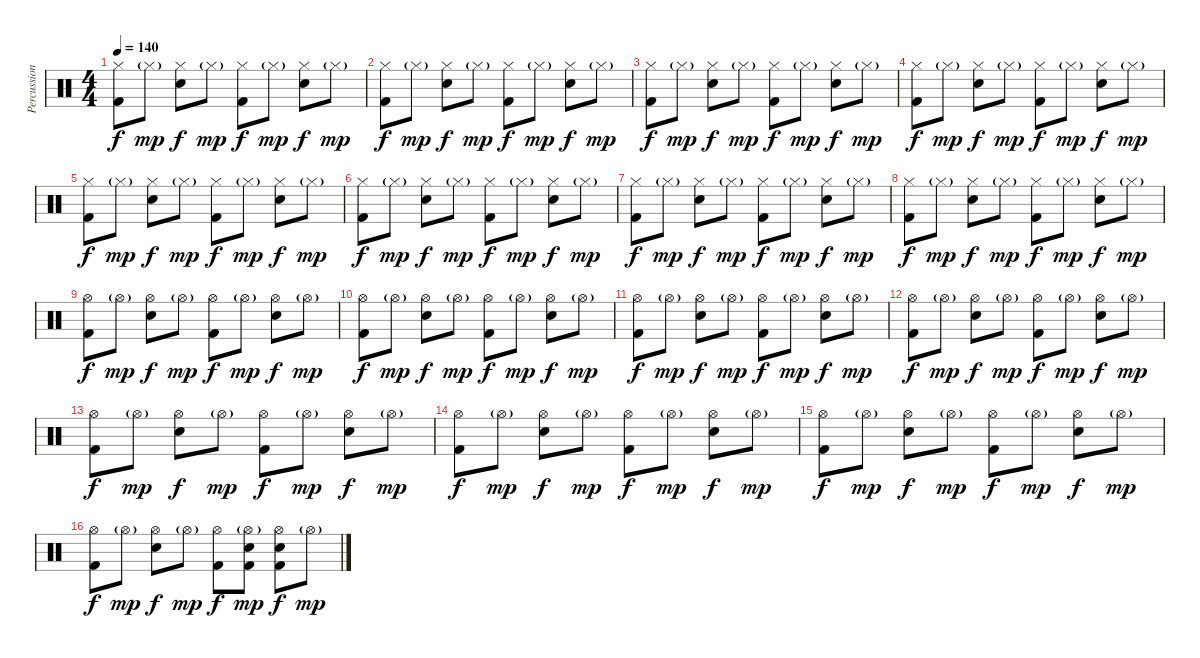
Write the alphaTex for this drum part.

\track ("Percussion" "Percussion") {instrument percussion}
\staff {score}
\articulation defaults
\ts (4 4)
\tempo 140
\clef neutral
\ks c
("Hi-Hat (closed)" "Kick (hit) 2").8{dy f} "Hi-Hat (closed)"{g}.8{dy mp} ("Hi-Hat (closed)" "Snare (hit) 2").8{dy f} "Hi-Hat (closed)"{g}.8{dy mp} ("Hi-Hat (closed)" "Kick (hit) 2").8{dy f} "Hi-Hat (closed)"{g}.8{dy mp} ("Hi-Hat (closed)" "Snare (hit) 2").8{dy f} "Hi-Hat (closed)"{g}.8{dy mp} |
("Hi-Hat (closed)" "Kick (hit) 2").8{dy f} "Hi-Hat (closed)"{g}.8{dy mp} ("Hi-Hat (closed)" "Snare (hit) 2").8{dy f} "Hi-Hat (closed)"{g}.8{dy mp} ("Hi-Hat (closed)" "Kick (hit) 2").8{dy f} "Hi-Hat (closed)"{g}.8{dy mp} ("Hi-Hat (closed)" "Snare (hit) 2").8{dy f} "Hi-Hat (closed)"{g}.8{dy mp} |
("Hi-Hat (closed)" "Kick (hit) 2").8{dy f} "Hi-Hat (closed)"{g}.8{dy mp} ("Hi-Hat (closed)" "Snare (hit) 2").8{dy f} "Hi-Hat (closed)"{g}.8{dy mp} ("Hi-Hat (closed)" "Kick (hit) 2").8{dy f} "Hi-Hat (closed)"{g}.8{dy mp} ("Hi-Hat (closed)" "Snare (hit) 2").8{dy f} "Hi-Hat (closed)"{g}.8{dy mp} |
("Hi-Hat (closed)" "Kick (hit) 2").8{dy f} "Hi-Hat (closed)"{g}.8{dy mp} ("Hi-Hat (closed)" "Snare (hit) 2").8{dy f} "Hi-Hat (closed)"{g}.8{dy mp} ("Hi-Hat (closed)" "Kick (hit) 2").8{dy f} "Hi-Hat (closed)"{g}.8{dy mp} ("Hi-Hat (closed)" "Snare (hit) 2").8{dy f} "Hi-Hat (closed)"{g}.8{dy mp} |
("Hi-Hat (closed)" "Kick (hit) 2").8{dy f} "Hi-Hat (closed)"{g}.8{dy mp} ("Hi-Hat (closed)" "Snare (hit) 2").8{dy f} "Hi-Hat (closed)"{g}.8{dy mp} ("Hi-Hat (closed)" "Kick (hit) 2").8{dy f} "Hi-Hat (closed)"{g}.8{dy mp} ("Hi-Hat (closed)" "Snare (hit) 2").8{dy f} "Hi-Hat (closed)"{g}.8{dy mp} |
("Hi-Hat (closed)" "Kick (hit) 2").8{dy f} "Hi-Hat (closed)"{g}.8{dy mp} ("Hi-Hat (closed)" "Snare (hit) 2").8{dy f} "Hi-Hat (closed)"{g}.8{dy mp} ("Hi-Hat (closed)" "Kick (hit) 2").8{dy f} "Hi-Hat (closed)"{g}.8{dy mp} ("Hi-Hat (closed)" "Snare (hit) 2").8{dy f} "Hi-Hat (closed)"{g}.8{dy mp} |
("Hi-Hat (closed)" "Kick (hit) 2").8{dy f} "Hi-Hat (closed)"{g}.8{dy mp} ("Hi-Hat (closed)" "Snare (hit) 2").8{dy f} "Hi-Hat (closed)"{g}.8{dy mp} ("Hi-Hat (closed)" "Kick (hit) 2").8{dy f} "Hi-Hat (closed)"{g}.8{dy mp} ("Hi-Hat (closed)" "Snare (hit) 2").8{dy f} "Hi-Hat (closed)"{g}.8{dy mp} |
("Hi-Hat (closed)" "Kick (hit) 2").8{dy f} "Hi-Hat (closed)"{g}.8{dy mp} ("Hi-Hat (closed)" "Snare (hit) 2").8{dy f} "Hi-Hat (closed)"{g}.8{dy mp} ("Hi-Hat (closed)" "Kick (hit) 2").8{dy f} "Hi-Hat (closed)"{g}.8{dy mp} ("Hi-Hat (closed)" "Snare (hit) 2").8{dy f} "Hi-Hat (closed)"{g}.8{dy mp} |
("Hi-Hat (open)" "Kick (hit) 2").8{dy f} "Hi-Hat (open)"{g}.8{dy mp} ("Hi-Hat (open)" "Snare (hit) 2").8{dy f} "Hi-Hat (open)"{g}.8{dy mp} ("Hi-Hat (open)" "Kick (hit) 2").8{dy f} "Hi-Hat (open)"{g}.8{dy mp} ("Hi-Hat (open)" "Snare (hit) 2").8{dy f} "Hi-Hat (open)"{g}.8{dy mp} |
("Hi-Hat (open)" "Kick (hit) 2").8{dy f} "Hi-Hat (open)"{g}.8{dy mp} ("Hi-Hat (open)" "Snare (hit) 2").8{dy f} "Hi-Hat (open)"{g}.8{dy mp} ("Hi-Hat (open)" "Kick (hit) 2").8{dy f} "Hi-Hat (open)"{g}.8{dy mp} ("Hi-Hat (open)" "Snare (hit) 2").8{dy f} "Hi-Hat (open)"{g}.8{dy mp} |
("Hi-Hat (open)" "Kick (hit) 2").8{dy f} "Hi-Hat (open)"{g}.8{dy mp} ("Hi-Hat (open)" "Snare (hit) 2").8{dy f} "Hi-Hat (open)"{g}.8{dy mp} ("Hi-Hat (open)" "Kick (hit) 2").8{dy f} "Hi-Hat (open)"{g}.8{dy mp} ("Hi-Hat (open)" "Snare (hit) 2").8{dy f} "Hi-Hat (open)"{g}.8{dy mp} |
("Hi-Hat (open)" "Kick (hit) 2").8{dy f} "Hi-Hat (open)"{g}.8{dy mp} ("Hi-Hat (open)" "Snare (hit) 2").8{dy f} "Hi-Hat (open)"{g}.8{dy mp} ("Hi-Hat (open)" "Kick (hit) 2").8{dy f} "Hi-Hat (open)"{g}.8{dy mp} ("Hi-Hat (open)" "Snare (hit) 2").8{dy f} "Hi-Hat (open)"{g}.8{dy mp} |
("Hi-Hat (open)" "Kick (hit) 2").8{dy f} "Hi-Hat (open)"{g}.8{dy mp} ("Hi-Hat (open)" "Snare (hit) 2").8{dy f} "Hi-Hat (open)"{g}.8{dy mp} ("Hi-Hat (open)" "Kick (hit) 2").8{dy f} "Hi-Hat (open)"{g}.8{dy mp} ("Hi-Hat (open)" "Snare (hit) 2").8{dy f} "Hi-Hat (open)"{g}.8{dy mp} |
("Hi-Hat (open)" "Kick (hit) 2").8{dy f} "Hi-Hat (open)"{g}.8{dy mp} ("Hi-Hat (open)" "Snare (hit) 2").8{dy f} "Hi-Hat (open)"{g}.8{dy mp} ("Hi-Hat (open)" "Kick (hit) 2").8{dy f} "Hi-Hat (open)"{g}.8{dy mp} ("Hi-Hat (open)" "Snare (hit) 2").8{dy f} "Hi-Hat (open)"{g}.8{dy mp} |
("Hi-Hat (open)" "Kick (hit) 2").8{dy f} "Hi-Hat (open)"{g}.8{dy mp} ("Hi-Hat (open)" "Snare (hit) 2").8{dy f} "Hi-Hat (open)"{g}.8{dy mp} ("Hi-Hat (open)" "Kick (hit) 2").8{dy f} "Hi-Hat (open)"{g}.8{dy mp} ("Hi-Hat (open)" "Snare (hit) 2").8{dy f} "Hi-Hat (open)"{g}.8{dy mp} |
("Hi-Hat (open)" "Kick (hit) 2").8{dy f} "Hi-Hat (open)"{g}.8{dy mp} ("Hi-Hat (open)" "Snare (hit) 2").8{dy f} "Hi-Hat (open)"{g}.8{dy mp} ("Hi-Hat (open)" "Kick (hit) 2").8{dy f} ("Hi-Hat (open)"{g} "Snare (hit) 2" "Kick (hit) 2").8{dy mp} ("Hi-Hat (open)" "Snare (hit) 2" "Kick (hit) 2").8{dy f} "Hi-Hat (open)"{g}.8{dy mp}
